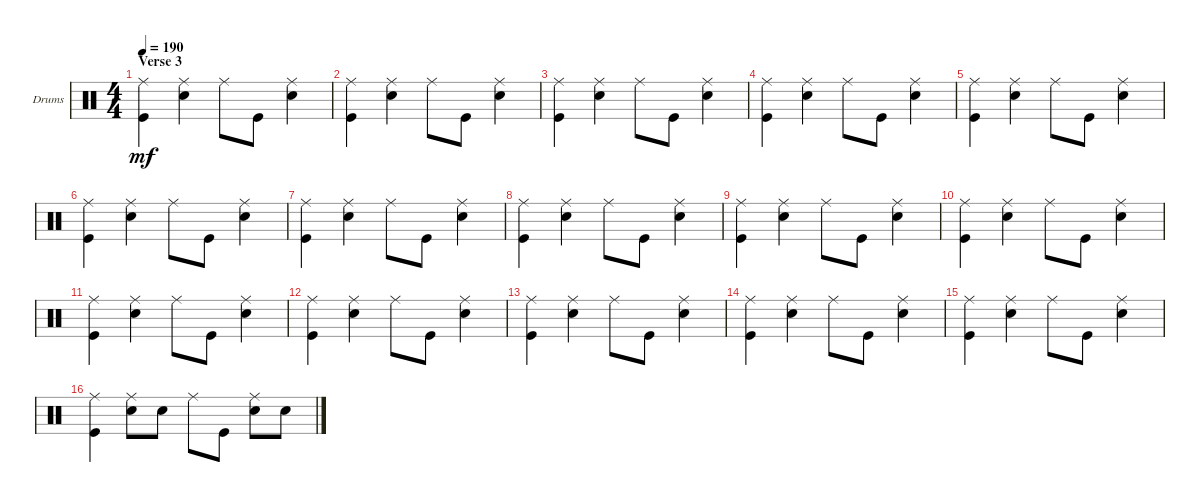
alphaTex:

\defaultSystemsLayout 4
\bracketExtendMode groupsimilarinstruments
\firstSystemTrackNameOrientation horizontal
\otherSystemsTrackNameOrientation horizontal
\track ("Drumkit" "Drums") {instrument percussion}
\staff {score}
\articulation defaults
\ts (4 4)
\section ("" "Verse 3")
\tempo 190
\clef neutral
\ks c
("Kick (hit)" "Ride (middle)").4{dy mf} ("Snare (hit) 2" "Ride (middle)").4 "Ride (middle)".8 "Kick (hit)".8 ("Ride (middle)" "Snare (hit) 2").4 |
("Kick (hit)" "Ride (middle)").4 ("Snare (hit) 2" "Ride (middle)").4 "Ride (middle)".8 "Kick (hit)".8 ("Ride (middle)" "Snare (hit) 2").4 |
("Kick (hit)" "Ride (middle)").4 ("Snare (hit) 2" "Ride (middle)").4 "Ride (middle)".8 "Kick (hit)".8 ("Ride (middle)" "Snare (hit) 2").4 |
("Kick (hit)" "Ride (middle)").4 ("Snare (hit) 2" "Ride (middle)").4 "Ride (middle)".8 "Kick (hit)".8 ("Ride (middle)" "Snare (hit) 2").4 |
("Kick (hit)" "Ride (middle)").4 ("Snare (hit) 2" "Ride (middle)").4 "Ride (middle)".8 "Kick (hit)".8 ("Ride (middle)" "Snare (hit) 2").4 |
("Kick (hit)" "Ride (middle)").4 ("Snare (hit) 2" "Ride (middle)").4 "Ride (middle)".8 "Kick (hit)".8 ("Ride (middle)" "Snare (hit) 2").4 |
("Kick (hit)" "Ride (middle)").4 ("Snare (hit) 2" "Ride (middle)").4 "Ride (middle)".8 "Kick (hit)".8 ("Ride (middle)" "Snare (hit) 2").4 |
("Kick (hit)" "Ride (middle)").4 ("Snare (hit) 2" "Ride (middle)").4 "Ride (middle)".8 "Kick (hit)".8 ("Ride (middle)" "Snare (hit) 2").4 |
("Kick (hit)" "Ride (middle)").4 ("Snare (hit) 2" "Ride (middle)").4 "Ride (middle)".8 "Kick (hit)".8 ("Ride (middle)" "Snare (hit) 2").4 |
("Kick (hit)" "Ride (middle)").4 ("Snare (hit) 2" "Ride (middle)").4 "Ride (middle)".8 "Kick (hit)".8 ("Ride (middle)" "Snare (hit) 2").4 |
("Kick (hit)" "Ride (middle)").4 ("Snare (hit) 2" "Ride (middle)").4 "Ride (middle)".8 "Kick (hit)".8 ("Ride (middle)" "Snare (hit) 2").4 |
("Kick (hit)" "Ride (middle)").4 ("Snare (hit) 2" "Ride (middle)").4 "Ride (middle)".8 "Kick (hit)".8 ("Ride (middle)" "Snare (hit) 2").4 |
("Kick (hit)" "Ride (middle)").4 ("Snare (hit) 2" "Ride (middle)").4 "Ride (middle)".8 "Kick (hit)".8 ("Ride (middle)" "Snare (hit) 2").4 |
("Kick (hit)" "Ride (middle)").4 ("Snare (hit) 2" "Ride (middle)").4 "Ride (middle)".8 "Kick (hit)".8 ("Ride (middle)" "Snare (hit) 2").4 |
("Kick (hit)" "Ride (middle)").4 ("Snare (hit) 2" "Ride (middle)").4 "Ride (middle)".8 "Kick (hit)".8 ("Ride (middle)" "Snare (hit) 2").4 |
("Kick (hit)" "Ride (middle)").4 ("Snare (hit) 2" "Ride (middle)").8 "Snare (hit) 2".8 "Ride (middle)".8 "Kick (hit)".8 ("Ride (middle)" "Snare (hit) 2").8 "Snare (hit) 2".8
